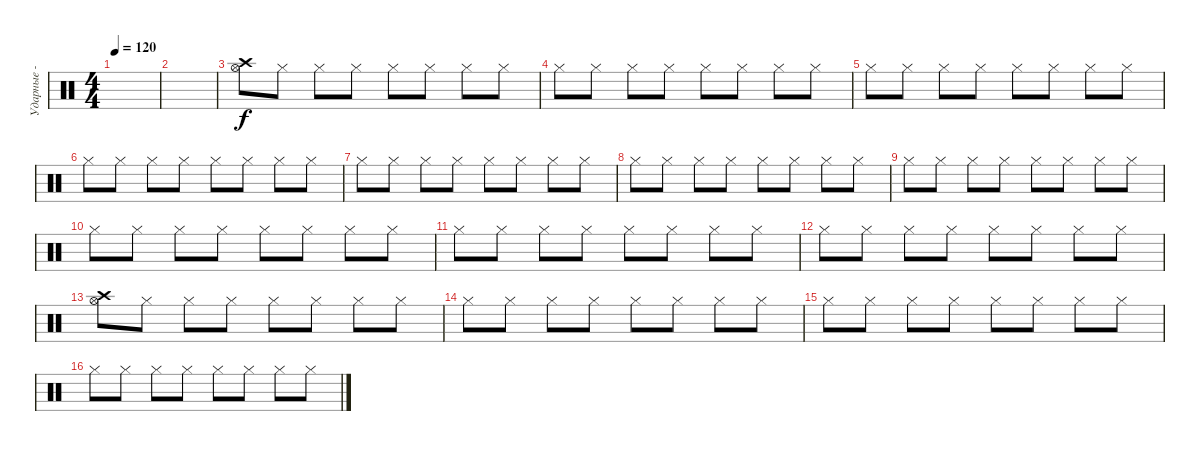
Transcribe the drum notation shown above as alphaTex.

\track ("Ударные - 2" "Ударные - ") {instrument percussion}
\staff {score}
\articulation defaults
\ts (4 4)
\tempo 120
\clef neutral
\ks c
|
|
("Crash high (hit)" "Hi-Hat (open)").8 "Hi-Hat (closed)".8 "Hi-Hat (closed)".8 "Hi-Hat (closed)".8 "Hi-Hat (closed)".8 "Hi-Hat (closed)".8 "Hi-Hat (closed)".8 "Hi-Hat (closed)".8 |
"Hi-Hat (closed)".8 "Hi-Hat (closed)".8 "Hi-Hat (closed)".8 "Hi-Hat (closed)".8 "Hi-Hat (closed)".8 "Hi-Hat (closed)".8 "Hi-Hat (closed)".8 "Hi-Hat (closed)".8 |
"Hi-Hat (closed)".8 "Hi-Hat (closed)".8 "Hi-Hat (closed)".8 "Hi-Hat (closed)".8 "Hi-Hat (closed)".8 "Hi-Hat (closed)".8 "Hi-Hat (closed)".8 "Hi-Hat (closed)".8 |
"Hi-Hat (closed)".8 "Hi-Hat (closed)".8 "Hi-Hat (closed)".8 "Hi-Hat (closed)".8 "Hi-Hat (closed)".8 "Hi-Hat (closed)".8 "Hi-Hat (closed)".8 "Hi-Hat (closed)".8 |
"Hi-Hat (closed)".8 "Hi-Hat (closed)".8 "Hi-Hat (closed)".8 "Hi-Hat (closed)".8 "Hi-Hat (closed)".8 "Hi-Hat (closed)".8 "Hi-Hat (closed)".8 "Hi-Hat (closed)".8 |
"Hi-Hat (closed)".8 "Hi-Hat (closed)".8 "Hi-Hat (closed)".8 "Hi-Hat (closed)".8 "Hi-Hat (closed)".8 "Hi-Hat (closed)".8 "Hi-Hat (closed)".8 "Hi-Hat (closed)".8 |
"Hi-Hat (closed)".8 "Hi-Hat (closed)".8 "Hi-Hat (closed)".8 "Hi-Hat (closed)".8 "Hi-Hat (closed)".8 "Hi-Hat (closed)".8 "Hi-Hat (closed)".8 "Hi-Hat (closed)".8 |
"Hi-Hat (closed)".8 "Hi-Hat (closed)".8 "Hi-Hat (closed)".8 "Hi-Hat (closed)".8 "Hi-Hat (closed)".8 "Hi-Hat (closed)".8 "Hi-Hat (closed)".8 "Hi-Hat (closed)".8 |
"Hi-Hat (closed)".8 "Hi-Hat (closed)".8 "Hi-Hat (closed)".8 "Hi-Hat (closed)".8 "Hi-Hat (closed)".8 "Hi-Hat (closed)".8 "Hi-Hat (closed)".8 "Hi-Hat (closed)".8 |
"Hi-Hat (closed)".8 "Hi-Hat (closed)".8 "Hi-Hat (closed)".8 "Hi-Hat (closed)".8 "Hi-Hat (closed)".8 "Hi-Hat (closed)".8 "Hi-Hat (closed)".8 "Hi-Hat (closed)".8 |
("Crash high (hit)" "Hi-Hat (open)").8 "Hi-Hat (closed)".8 "Hi-Hat (closed)".8 "Hi-Hat (closed)".8 "Hi-Hat (closed)".8 "Hi-Hat (closed)".8 "Hi-Hat (closed)".8 "Hi-Hat (closed)".8 |
"Hi-Hat (closed)".8 "Hi-Hat (closed)".8 "Hi-Hat (closed)".8 "Hi-Hat (closed)".8 "Hi-Hat (closed)".8 "Hi-Hat (closed)".8 "Hi-Hat (closed)".8 "Hi-Hat (closed)".8 |
"Hi-Hat (closed)".8 "Hi-Hat (closed)".8 "Hi-Hat (closed)".8 "Hi-Hat (closed)".8 "Hi-Hat (closed)".8 "Hi-Hat (closed)".8 "Hi-Hat (closed)".8 "Hi-Hat (closed)".8 |
"Hi-Hat (closed)".8 "Hi-Hat (closed)".8 "Hi-Hat (closed)".8 "Hi-Hat (closed)".8 "Hi-Hat (closed)".8 "Hi-Hat (closed)".8 "Hi-Hat (closed)".8 "Hi-Hat (closed)".8
